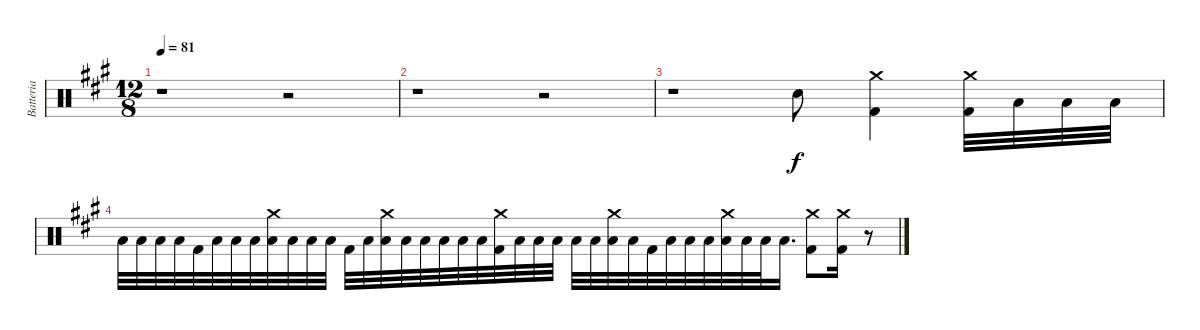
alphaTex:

\track ("Batteria" "Batteria") {instrument percussion}
\staff {score}
\articulation defaults
\ts (12 8)
\tempo 81
\clef neutral
\ks a
r.1{dy f} r.2 |
r.1 r.2 |
r.1 "Electric Snare (hit)".8 ("Crash medium (hit)" "Kick (hit) 2").4 ("Crash medium (hit)" "Kick (hit) 2").32 "Low Tom (hit)".32 "Low Tom (hit)".32 "Low Tom (hit)".32 |
"Low Tom (hit)".32 "Low Tom (hit)".32 "Low Tom (hit)".32 "Low Tom (hit)".32 "Kick (hit) 2".32 "Low Tom (hit)".32 "Low Tom (hit)".32 "Low Tom (hit)".32 ("Crash medium (hit)" "Low Tom (hit)").32 "Low Tom (hit)".32 "Low Tom (hit)".32 "Low Tom (hit)".32 "Kick (hit) 2".32 "Low Tom (hit)".32 ("Crash medium (hit)" "Low Tom (hit)").32 "Low Tom (hit)".32 "Low Tom (hit)".32 "Low Tom (hit)".32 "Low Tom (hit)".32 "Low Tom (hit)".32 ("Crash medium (hit)" "Kick (hit) 2").32 "Low Tom (hit)".32 "Low Tom (hit)".32 "Low Tom (hit)".32 "Low Tom (hit)".32 "Low Tom (hit)".32 ("Crash medium (hit)" "Low Tom (hit)").32 "Low Tom (hit)".32 "Kick (hit) 2".32 "Low Tom (hit)".32 "Low Tom (hit)".32 "Low Tom (hit)".32 ("Crash medium (hit)" "Low Tom (hit)").32 "Low Tom (hit)".32 "Low Tom (hit)".32 "Low Tom (hit)".16{d} ("Crash medium (hit)" "Kick (hit) 2").8 ("Crash medium (hit)" "Kick (hit) 2").16 r.8
